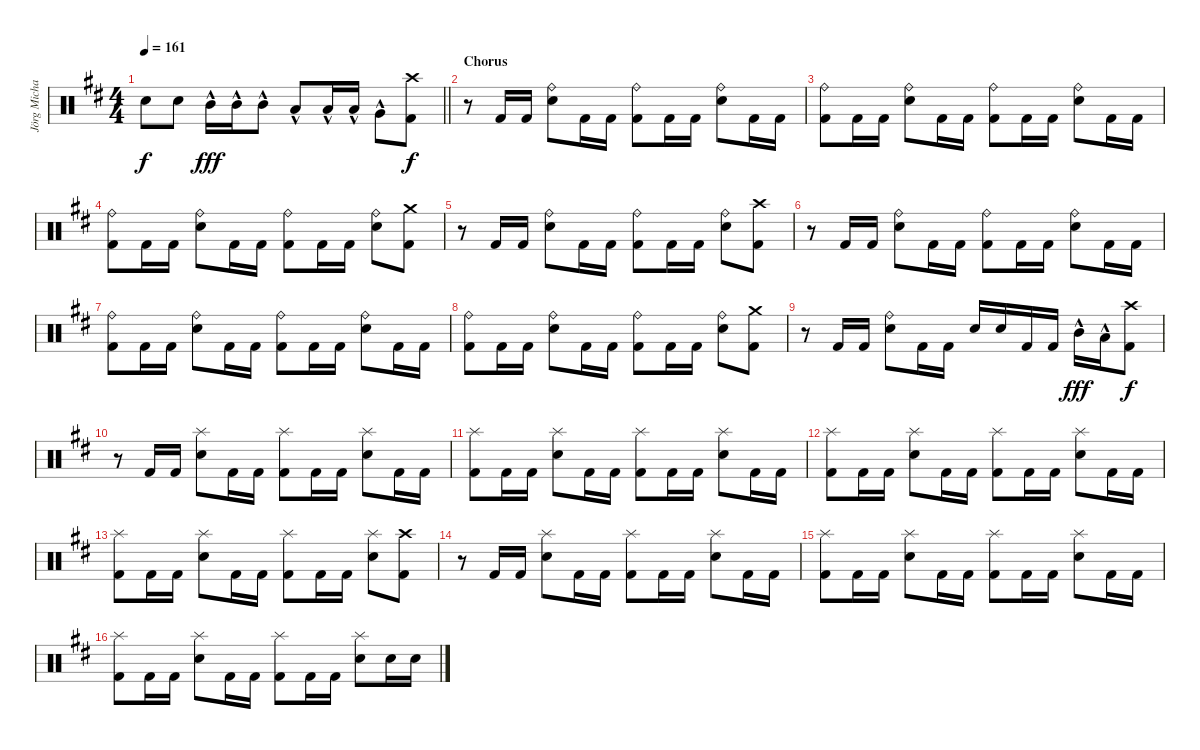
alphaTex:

\track ("Jörg Michael" "Jörg Micha") {instrument percussion}
\staff {score}
\articulation defaults
\ts (4 4)
\tempo 161
\clef neutral
\barLineRight lightlight
\ks bminor "Snare (hit) 2".8{dy f} "Snare (hit) 2".8 "Mid Tom (hit)"{hac}.16{dy fff} "Mid Tom (hit)"{hac}.16 "Mid Tom (hit)"{hac}.8 "Low Tom (hit)"{hac}.8 "Low Tom (hit)"{hac}.16 "Low Tom (hit)"{hac}.16 "Very Low Tom (hit)"{hac}.8
("Crash high (hit)" "Kick (hit) 2").8{dy f} |
\section ("" "Chorus")
r.8 "Kick (hit) 2".16 "Kick (hit) 2".16 ("Ride (bell)" "Snare (hit) 2").8 "Kick (hit) 2".16 "Kick (hit) 2".16 ("Ride (bell)" "Kick (hit) 2").8 "Kick (hit) 2".16 "Kick (hit) 2".16 ("Ride (bell)" "Snare (hit) 2").8 "Kick (hit) 2".16 "Kick (hit) 2".16 |
("Ride (bell)" "Kick (hit) 2").8 "Kick (hit) 2".16 "Kick (hit) 2".16 ("Ride (bell)" "Snare (hit) 2").8 "Kick (hit) 2".16 "Kick (hit) 2".16 ("Ride (bell)" "Kick (hit) 2").8 "Kick (hit) 2".16 "Kick (hit) 2".16 ("Ride (bell)" "Snare (hit) 2").8 "Kick (hit) 2".16 "Kick (hit) 2".16 |
("Ride (bell)" "Kick (hit) 2").8 "Kick (hit) 2".16 "Kick (hit) 2".16 ("Ride (bell)" "Snare (hit) 2").8 "Kick (hit) 2".16 "Kick (hit) 2".16 ("Ride (bell)" "Kick (hit) 2").8 "Kick (hit) 2".16 "Kick (hit) 2".16 ("Ride (bell)" "Snare (hit) 2").8 ("Crash medium (hit)" "Kick (hit) 2").8 |
r.8 "Kick (hit) 2".16 "Kick (hit) 2".16 ("Ride (bell)" "Snare (hit) 2").8 "Kick (hit) 2".16 "Kick (hit) 2".16 ("Ride (bell)" "Kick (hit) 2").8 "Kick (hit) 2".16 "Kick (hit) 2".16 ("Ride (bell)" "Snare (hit) 2").8 ("Crash high (hit)" "Kick (hit) 2").8 |
r.8 "Kick (hit) 2".16 "Kick (hit) 2".16 ("Ride (bell)" "Snare (hit) 2").8 "Kick (hit) 2".16 "Kick (hit) 2".16 ("Ride (bell)" "Kick (hit) 2").8 "Kick (hit) 2".16 "Kick (hit) 2".16 ("Ride (bell)" "Snare (hit) 2").8 "Kick (hit) 2".16 "Kick (hit) 2".16 |
("Ride (bell)" "Kick (hit) 2").8 "Kick (hit) 2".16 "Kick (hit) 2".16 ("Ride (bell)" "Snare (hit) 2").8 "Kick (hit) 2".16 "Kick (hit) 2".16 ("Ride (bell)" "Kick (hit) 2").8 "Kick (hit) 2".16 "Kick (hit) 2".16 ("Ride (bell)" "Snare (hit) 2").8 "Kick (hit) 2".16 "Kick (hit) 2".16 |
("Ride (bell)" "Kick (hit) 2").8 "Kick (hit) 2".16 "Kick (hit) 2".16 ("Ride (bell)" "Snare (hit) 2").8 "Kick (hit) 2".16 "Kick (hit) 2".16 ("Ride (bell)" "Kick (hit) 2").8 "Kick (hit) 2".16 "Kick (hit) 2".16 ("Ride (bell)" "Snare (hit) 2").8 ("Crash medium (hit)" "Kick (hit) 2").8 |
r.8 "Kick (hit) 2".16 "Kick (hit) 2".16 ("Ride (bell)" "Snare (hit) 2").8 "Kick (hit) 2".16 "Kick (hit) 2".16 "Snare (hit) 2".16 "Snare (hit) 2".16 "Kick (hit) 2".16 "Kick (hit) 2".16 "Mid Tom (hit)"{hac}.16{dy fff} "Low Tom (hit)"{hac}.16 ("Crash high (hit)" "Kick (hit) 2").8{dy f} |
r.8 "Kick (hit) 2".16 "Kick (hit) 2".16 ("Splash (hit)" "Snare (hit) 2").8 "Kick (hit) 2".16 "Kick (hit) 2".16 ("Splash (hit)" "Kick (hit) 2").8 "Kick (hit) 2".16 "Kick (hit) 2".16 ("Splash (hit)" "Snare (hit) 2").8 "Kick (hit) 2".16 "Kick (hit) 2".16 |
("Splash (hit)" "Kick (hit) 2").8 "Kick (hit) 2".16 "Kick (hit) 2".16 ("Splash (hit)" "Snare (hit) 2").8 "Kick (hit) 2".16 "Kick (hit) 2".16 ("Splash (hit)" "Kick (hit) 2").8 "Kick (hit) 2".16 "Kick (hit) 2".16 ("Splash (hit)" "Snare (hit) 2").8 "Kick (hit) 2".16 "Kick (hit) 2".16 |
("Splash (hit)" "Kick (hit) 2").8 "Kick (hit) 2".16 "Kick (hit) 2".16 ("Splash (hit)" "Snare (hit) 2").8 "Kick (hit) 2".16 "Kick (hit) 2".16 ("Splash (hit)" "Kick (hit) 2").8 "Kick (hit) 2".16 "Kick (hit) 2".16 ("Splash (hit)" "Snare (hit) 2").8 "Kick (hit) 2".16 "Kick (hit) 2".16 |
("Splash (hit)" "Kick (hit) 2").8 "Kick (hit) 2".16 "Kick (hit) 2".16 ("Splash (hit)" "Snare (hit) 2").8 "Kick (hit) 2".16 "Kick (hit) 2".16 ("Splash (hit)" "Kick (hit) 2").8 "Kick (hit) 2".16 "Kick (hit) 2".16 ("Splash (hit)" "Snare (hit) 2").8 ("Crash high (hit)" "Kick (hit) 2").8 |
r.8 "Kick (hit) 2".16 "Kick (hit) 2".16 ("Splash (hit)" "Snare (hit) 2").8 "Kick (hit) 2".16 "Kick (hit) 2".16 ("Splash (hit)" "Kick (hit) 2").8 "Kick (hit) 2".16 "Kick (hit) 2".16 ("Splash (hit)" "Snare (hit) 2").8 "Kick (hit) 2".16 "Kick (hit) 2".16 |
("Splash (hit)" "Kick (hit) 2").8 "Kick (hit) 2".16 "Kick (hit) 2".16 ("Splash (hit)" "Snare (hit) 2").8 "Kick (hit) 2".16 "Kick (hit) 2".16 ("Splash (hit)" "Kick (hit) 2").8 "Kick (hit) 2".16 "Kick (hit) 2".16 ("Splash (hit)" "Snare (hit) 2").8 "Kick (hit) 2".16 "Kick (hit) 2".16 |
("Splash (hit)" "Kick (hit) 2").8 "Kick (hit) 2".16 "Kick (hit) 2".16 ("Splash (hit)" "Snare (hit) 2").8 "Kick (hit) 2".16 "Kick (hit) 2".16 ("Splash (hit)" "Kick (hit) 2").8 "Kick (hit) 2".16 "Kick (hit) 2".16 ("Splash (hit)" "Snare (hit) 2").8 "Snare (hit) 2".16 "Snare (hit) 2".16
